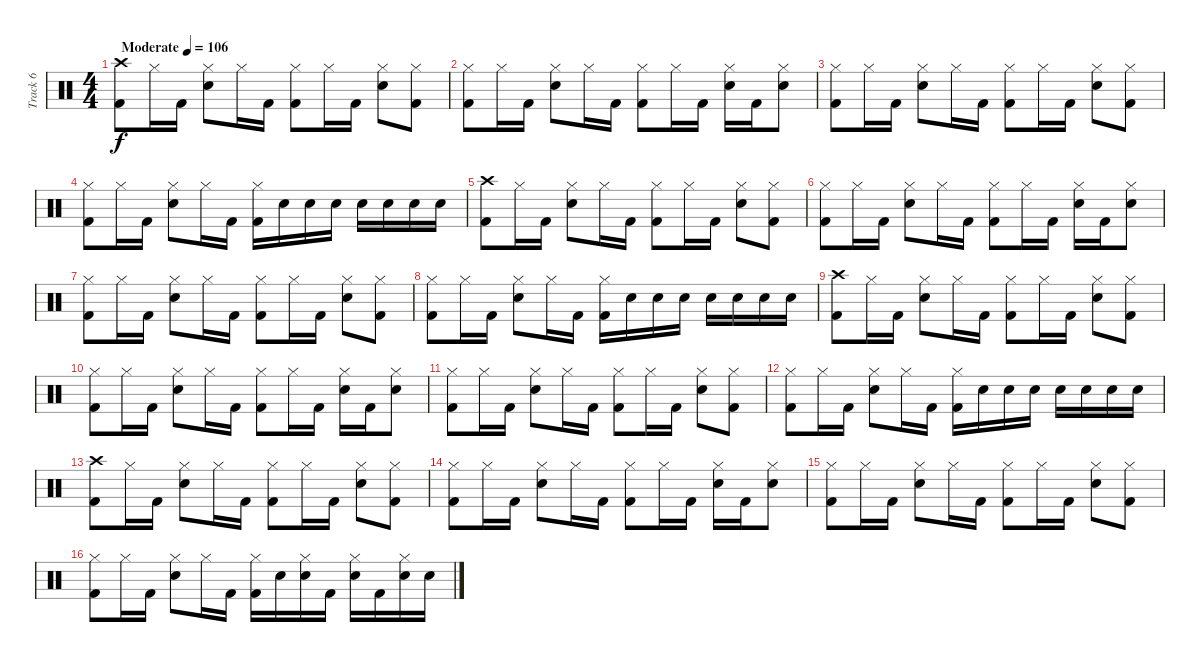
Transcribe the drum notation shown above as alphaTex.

\track ("Track 6" "Track 6") {instrument percussion}
\staff {score}
\articulation defaults
\ts (4 4)
\tempo (106 "Moderate")
\clef neutral
\ks c
("Crash high (hit)" "Kick (hit) 2").8{dy f} "Hi-Hat (closed)".16 "Kick (hit) 2".16 ("Hi-Hat (closed)" "Snare (hit) 2").8 "Hi-Hat (closed)".16 "Kick (hit) 2".16 ("Hi-Hat (closed)" "Kick (hit) 2").8 "Hi-Hat (closed)".16 "Kick (hit) 2".16 ("Hi-Hat (closed)" "Snare (hit) 2").8 ("Hi-Hat (closed)" "Kick (hit) 2").8 |
("Hi-Hat (closed)" "Kick (hit) 2").8 "Hi-Hat (closed)".16 "Kick (hit) 2".16 ("Hi-Hat (closed)" "Snare (hit) 2").8 "Hi-Hat (closed)".16 "Kick (hit) 2".16 ("Hi-Hat (closed)" "Kick (hit) 2").8 "Hi-Hat (closed)".16 "Kick (hit) 2".16 ("Hi-Hat (closed)" "Snare (hit) 2").16 "Kick (hit) 2".16 ("Hi-Hat (closed)" "Snare (hit) 2").8 |
("Hi-Hat (closed)" "Kick (hit) 2").8 "Hi-Hat (closed)".16 "Kick (hit) 2".16 ("Hi-Hat (closed)" "Snare (hit) 2").8 "Hi-Hat (closed)".16 "Kick (hit) 2".16 ("Hi-Hat (closed)" "Kick (hit) 2").8 "Hi-Hat (closed)".16 "Kick (hit) 2".16 ("Hi-Hat (closed)" "Snare (hit) 2").8 ("Hi-Hat (closed)" "Kick (hit) 2").8 |
("Hi-Hat (closed)" "Kick (hit) 2").8 "Hi-Hat (closed)".16 "Kick (hit) 2".16 ("Hi-Hat (closed)" "Snare (hit) 2").8 "Hi-Hat (closed)".16 "Kick (hit) 2".16 ("Hi-Hat (closed)" "Kick (hit) 2").16 "Snare (hit) 2".16 "Snare (hit) 2".16 "Snare (hit) 2".16 "Snare (hit) 2".16 "Snare (hit) 2".16 "Snare (hit) 2".16 "Snare (hit) 2".16 |
("Crash high (hit)" "Kick (hit) 2").8 "Hi-Hat (closed)".16 "Kick (hit) 2".16 ("Hi-Hat (closed)" "Snare (hit) 2").8 "Hi-Hat (closed)".16 "Kick (hit) 2".16 ("Hi-Hat (closed)" "Kick (hit) 2").8 "Hi-Hat (closed)".16 "Kick (hit) 2".16 ("Hi-Hat (closed)" "Snare (hit) 2").8 ("Hi-Hat (closed)" "Kick (hit) 2").8 |
("Hi-Hat (closed)" "Kick (hit) 2").8 "Hi-Hat (closed)".16 "Kick (hit) 2".16 ("Hi-Hat (closed)" "Snare (hit) 2").8 "Hi-Hat (closed)".16 "Kick (hit) 2".16 ("Hi-Hat (closed)" "Kick (hit) 2").8 "Hi-Hat (closed)".16 "Kick (hit) 2".16 ("Hi-Hat (closed)" "Snare (hit) 2").16 "Kick (hit) 2".16 ("Hi-Hat (closed)" "Snare (hit) 2").8 |
("Hi-Hat (closed)" "Kick (hit) 2").8 "Hi-Hat (closed)".16 "Kick (hit) 2".16 ("Hi-Hat (closed)" "Snare (hit) 2").8 "Hi-Hat (closed)".16 "Kick (hit) 2".16 ("Hi-Hat (closed)" "Kick (hit) 2").8 "Hi-Hat (closed)".16 "Kick (hit) 2".16 ("Hi-Hat (closed)" "Snare (hit) 2").8 ("Hi-Hat (closed)" "Kick (hit) 2").8 |
("Hi-Hat (closed)" "Kick (hit) 2").8 "Hi-Hat (closed)".16 "Kick (hit) 2".16 ("Hi-Hat (closed)" "Snare (hit) 2").8 "Hi-Hat (closed)".16 "Kick (hit) 2".16 ("Hi-Hat (closed)" "Kick (hit) 2").16 "Snare (hit) 2".16 "Snare (hit) 2".16 "Snare (hit) 2".16 "Snare (hit) 2".16 "Snare (hit) 2".16 "Snare (hit) 2".16 "Snare (hit) 2".16 |
("Crash high (hit)" "Kick (hit) 2").8 "Hi-Hat (closed)".16 "Kick (hit) 2".16 ("Hi-Hat (closed)" "Snare (hit) 2").8 "Hi-Hat (closed)".16 "Kick (hit) 2".16 ("Hi-Hat (closed)" "Kick (hit) 2").8 "Hi-Hat (closed)".16 "Kick (hit) 2".16 ("Hi-Hat (closed)" "Snare (hit) 2").8 ("Hi-Hat (closed)" "Kick (hit) 2").8 |
("Hi-Hat (closed)" "Kick (hit) 2").8 "Hi-Hat (closed)".16 "Kick (hit) 2".16 ("Hi-Hat (closed)" "Snare (hit) 2").8 "Hi-Hat (closed)".16 "Kick (hit) 2".16 ("Hi-Hat (closed)" "Kick (hit) 2").8 "Hi-Hat (closed)".16 "Kick (hit) 2".16 ("Hi-Hat (closed)" "Snare (hit) 2").16 "Kick (hit) 2".16 ("Hi-Hat (closed)" "Snare (hit) 2").8 |
("Hi-Hat (closed)" "Kick (hit) 2").8 "Hi-Hat (closed)".16 "Kick (hit) 2".16 ("Hi-Hat (closed)" "Snare (hit) 2").8 "Hi-Hat (closed)".16 "Kick (hit) 2".16 ("Hi-Hat (closed)" "Kick (hit) 2").8 "Hi-Hat (closed)".16 "Kick (hit) 2".16 ("Hi-Hat (closed)" "Snare (hit) 2").8 ("Hi-Hat (closed)" "Kick (hit) 2").8 |
("Hi-Hat (closed)" "Kick (hit) 2").8 "Hi-Hat (closed)".16 "Kick (hit) 2".16 ("Hi-Hat (closed)" "Snare (hit) 2").8 "Hi-Hat (closed)".16 "Kick (hit) 2".16 ("Hi-Hat (closed)" "Kick (hit) 2").16 "Snare (hit) 2".16 "Snare (hit) 2".16 "Snare (hit) 2".16 "Snare (hit) 2".16 "Snare (hit) 2".16 "Snare (hit) 2".16 "Snare (hit) 2".16 |
("Crash high (hit)" "Kick (hit) 2").8 "Hi-Hat (closed)".16 "Kick (hit) 2".16 ("Hi-Hat (closed)" "Snare (hit) 2").8 "Hi-Hat (closed)".16 "Kick (hit) 2".16 ("Hi-Hat (closed)" "Kick (hit) 2").8 "Hi-Hat (closed)".16 "Kick (hit) 2".16 ("Hi-Hat (closed)" "Snare (hit) 2").8 ("Hi-Hat (closed)" "Kick (hit) 2").8 |
("Hi-Hat (closed)" "Kick (hit) 2").8 "Hi-Hat (closed)".16 "Kick (hit) 2".16 ("Hi-Hat (closed)" "Snare (hit) 2").8 "Hi-Hat (closed)".16 "Kick (hit) 2".16 ("Hi-Hat (closed)" "Kick (hit) 2").8 "Hi-Hat (closed)".16 "Kick (hit) 2".16 ("Hi-Hat (closed)" "Snare (hit) 2").16 "Kick (hit) 2".16 ("Hi-Hat (closed)" "Snare (hit) 2").8 |
("Hi-Hat (closed)" "Kick (hit) 2").8 "Hi-Hat (closed)".16 "Kick (hit) 2".16 ("Hi-Hat (closed)" "Snare (hit) 2").8 "Hi-Hat (closed)".16 "Kick (hit) 2".16 ("Hi-Hat (closed)" "Kick (hit) 2").8 "Hi-Hat (closed)".16 "Kick (hit) 2".16 ("Hi-Hat (closed)" "Snare (hit) 2").8 ("Hi-Hat (closed)" "Kick (hit) 2").8 |
("Hi-Hat (closed)" "Kick (hit) 2").8 "Hi-Hat (closed)".16 "Kick (hit) 2".16 ("Hi-Hat (closed)" "Snare (hit) 2").8 "Hi-Hat (closed)".16 "Kick (hit) 2".16 ("Hi-Hat (closed)" "Kick (hit) 2").16 "Snare (hit) 2".16 ("Hi-Hat (closed)" "Snare (hit) 2").16 "Kick (hit) 2".16 ("Hi-Hat (closed)" "Snare (hit) 2").16 "Kick (hit) 2".16 ("Hi-Hat (closed)" "Snare (hit) 2").16 "Snare (hit) 2".16
